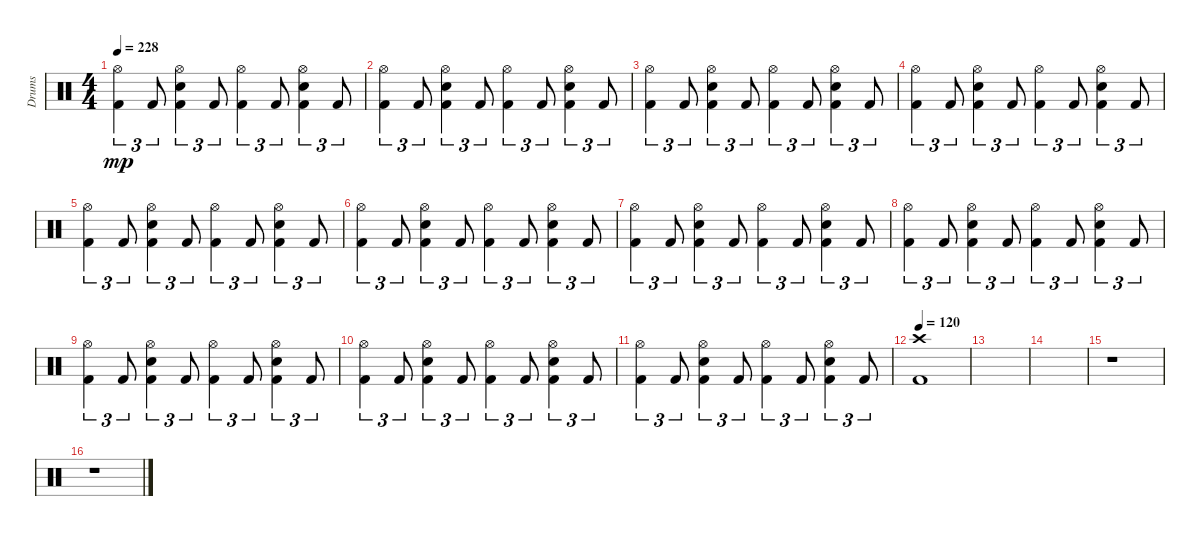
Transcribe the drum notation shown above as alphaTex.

\track ("Drums" "Drums") {instrument percussion}
\staff {score}
\articulation defaults
\ts (4 4)
\tempo 228
\clef neutral
\ks c
("Hi-Hat (open)" "Kick (hit) 2").4{tu (3 2) dy mp} "Kick (hit) 2".8{tu (3 2)} ("Hi-Hat (open)" "Electric Snare (hit)" "Kick (hit) 2").4{tu (3 2)} "Kick (hit) 2".8{tu (3 2)} ("Hi-Hat (open)" "Kick (hit) 2").4{tu (3 2)} "Kick (hit) 2".8{tu (3 2)} ("Hi-Hat (open)" "Electric Snare (hit)" "Kick (hit) 2").4{tu (3 2)} "Kick (hit) 2".8{tu (3 2)} |
("Hi-Hat (open)" "Kick (hit) 2").4{tu (3 2)} "Kick (hit) 2".8{tu (3 2)} ("Hi-Hat (open)" "Electric Snare (hit)" "Kick (hit) 2").4{tu (3 2)} "Kick (hit) 2".8{tu (3 2)} ("Hi-Hat (open)" "Kick (hit) 2").4{tu (3 2)} "Kick (hit) 2".8{tu (3 2)} ("Hi-Hat (open)" "Electric Snare (hit)" "Kick (hit) 2").4{tu (3 2)} "Kick (hit) 2".8{tu (3 2)} |
("Hi-Hat (open)" "Kick (hit) 2").4{tu (3 2)} "Kick (hit) 2".8{tu (3 2)} ("Hi-Hat (open)" "Electric Snare (hit)" "Kick (hit) 2").4{tu (3 2)} "Kick (hit) 2".8{tu (3 2)} ("Hi-Hat (open)" "Kick (hit) 2").4{tu (3 2)} "Kick (hit) 2".8{tu (3 2)} ("Hi-Hat (open)" "Electric Snare (hit)" "Kick (hit) 2").4{tu (3 2)} "Kick (hit) 2".8{tu (3 2)} |
("Hi-Hat (open)" "Kick (hit) 2").4{tu (3 2)} "Kick (hit) 2".8{tu (3 2)} ("Hi-Hat (open)" "Electric Snare (hit)" "Kick (hit) 2").4{tu (3 2)} "Kick (hit) 2".8{tu (3 2)} ("Hi-Hat (open)" "Kick (hit) 2").4{tu (3 2)} "Kick (hit) 2".8{tu (3 2)} ("Hi-Hat (open)" "Electric Snare (hit)" "Kick (hit) 2").4{tu (3 2)} "Kick (hit) 2".8{tu (3 2)} |
("Hi-Hat (open)" "Kick (hit) 2").4{tu (3 2)} "Kick (hit) 2".8{tu (3 2)} ("Hi-Hat (open)" "Electric Snare (hit)" "Kick (hit) 2").4{tu (3 2)} "Kick (hit) 2".8{tu (3 2)} ("Hi-Hat (open)" "Kick (hit) 2").4{tu (3 2)} "Kick (hit) 2".8{tu (3 2)} ("Hi-Hat (open)" "Electric Snare (hit)" "Kick (hit) 2").4{tu (3 2)} "Kick (hit) 2".8{tu (3 2)} |
("Hi-Hat (open)" "Kick (hit) 2").4{tu (3 2)} "Kick (hit) 2".8{tu (3 2)} ("Hi-Hat (open)" "Electric Snare (hit)" "Kick (hit) 2").4{tu (3 2)} "Kick (hit) 2".8{tu (3 2)} ("Hi-Hat (open)" "Kick (hit) 2").4{tu (3 2)} "Kick (hit) 2".8{tu (3 2)} ("Hi-Hat (open)" "Electric Snare (hit)" "Kick (hit) 2").4{tu (3 2)} "Kick (hit) 2".8{tu (3 2)} |
("Hi-Hat (open)" "Kick (hit) 2").4{tu (3 2)} "Kick (hit) 2".8{tu (3 2)} ("Hi-Hat (open)" "Electric Snare (hit)" "Kick (hit) 2").4{tu (3 2)} "Kick (hit) 2".8{tu (3 2)} ("Hi-Hat (open)" "Kick (hit) 2").4{tu (3 2)} "Kick (hit) 2".8{tu (3 2)} ("Hi-Hat (open)" "Electric Snare (hit)" "Kick (hit) 2").4{tu (3 2)} "Kick (hit) 2".8{tu (3 2)} |
("Hi-Hat (open)" "Kick (hit) 2").4{tu (3 2)} "Kick (hit) 2".8{tu (3 2)} ("Hi-Hat (open)" "Electric Snare (hit)" "Kick (hit) 2").4{tu (3 2)} "Kick (hit) 2".8{tu (3 2)} ("Hi-Hat (open)" "Kick (hit) 2").4{tu (3 2)} "Kick (hit) 2".8{tu (3 2)} ("Hi-Hat (open)" "Electric Snare (hit)" "Kick (hit) 2").4{tu (3 2)} "Kick (hit) 2".8{tu (3 2)} |
("Hi-Hat (open)" "Kick (hit) 2").4{tu (3 2)} "Kick (hit) 2".8{tu (3 2)} ("Hi-Hat (open)" "Electric Snare (hit)" "Kick (hit) 2").4{tu (3 2)} "Kick (hit) 2".8{tu (3 2)} ("Hi-Hat (open)" "Kick (hit) 2").4{tu (3 2)} "Kick (hit) 2".8{tu (3 2)} ("Hi-Hat (open)" "Electric Snare (hit)" "Kick (hit) 2").4{tu (3 2)} "Kick (hit) 2".8{tu (3 2)} |
("Hi-Hat (open)" "Kick (hit) 2").4{tu (3 2)} "Kick (hit) 2".8{tu (3 2)} ("Hi-Hat (open)" "Electric Snare (hit)" "Kick (hit) 2").4{tu (3 2)} "Kick (hit) 2".8{tu (3 2)} ("Hi-Hat (open)" "Kick (hit) 2").4{tu (3 2)} "Kick (hit) 2".8{tu (3 2)} ("Hi-Hat (open)" "Electric Snare (hit)" "Kick (hit) 2").4{tu (3 2)} "Kick (hit) 2".8{tu (3 2)} |
("Hi-Hat (open)" "Kick (hit) 2").4{tu (3 2)} "Kick (hit) 2".8{tu (3 2)} ("Hi-Hat (open)" "Electric Snare (hit)" "Kick (hit) 2").4{tu (3 2)} "Kick (hit) 2".8{tu (3 2)} ("Hi-Hat (open)" "Kick (hit) 2").4{tu (3 2)} "Kick (hit) 2".8{tu (3 2)} ("Hi-Hat (open)" "Electric Snare (hit)" "Kick (hit) 2").4{tu (3 2)} "Kick (hit) 2".8{tu (3 2)} |
\tempo 120
("Crash high (hit)" "Kick (hit) 2").1 |
|
|
r.1 |
r.1
